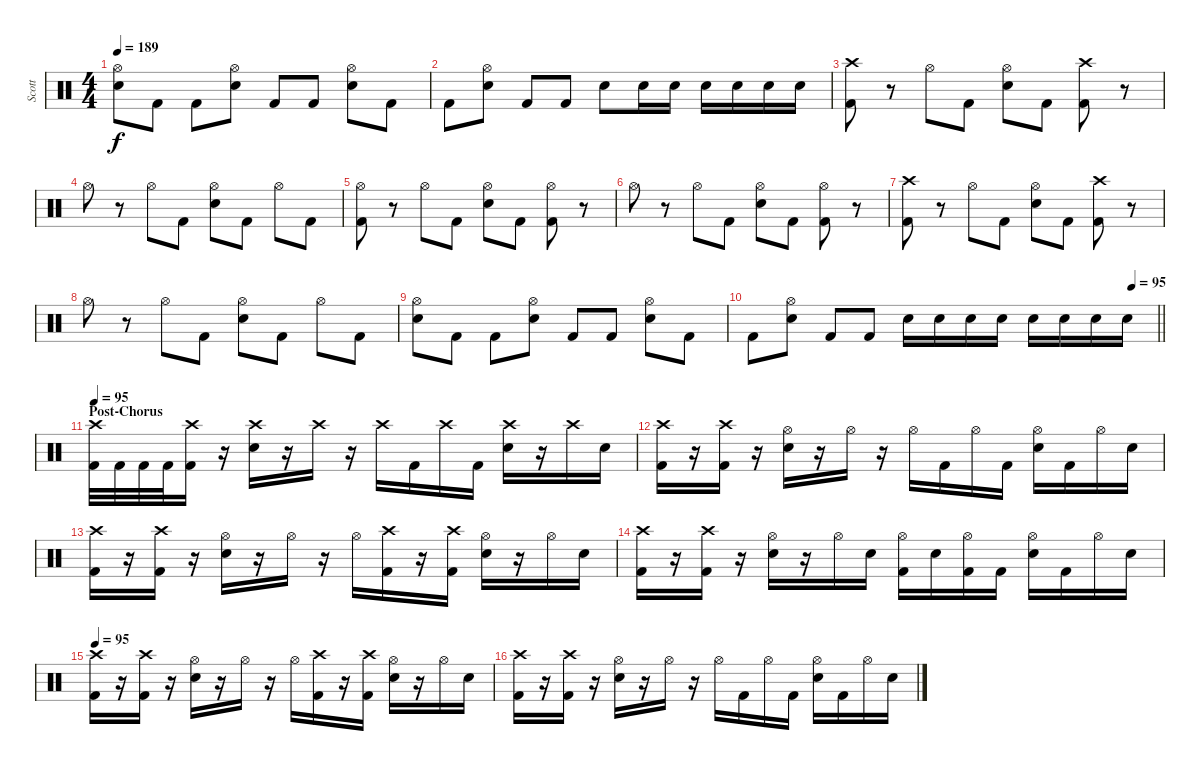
\track ("Scott" "Scott") {instrument percussion}
\staff {score}
\articulation defaults
\ts (4 4)
\tempo 189
\clef neutral
\ks c
("Hi-Hat (open)" "Electric Snare (hit)").8{dy f} "Kick (hit) 2".8 "Kick (hit) 2".8 ("Hi-Hat (open)" "Electric Snare (hit)").8 "Kick (hit) 2".8 "Kick (hit) 2".8 ("Hi-Hat (open)" "Electric Snare (hit)").8 "Kick (hit) 2".8 |
"Kick (hit) 2".8 ("Hi-Hat (open)" "Electric Snare (hit)").8 "Kick (hit) 2".8 "Kick (hit) 2".8 "Electric Snare (hit)".8 "Electric Snare (hit)".16 "Electric Snare (hit)".16 "Electric Snare (hit)".16 "Electric Snare (hit)".16 "Electric Snare (hit)".16 "Electric Snare (hit)".16 |
("Crash high (hit)" "Kick (hit) 2").8 r.8 "Hi-Hat (open)".8 "Kick (hit) 2".8 ("Hi-Hat (open)" "Electric Snare (hit)").8 "Kick (hit) 2".8 ("Crash high (hit)" "Kick (hit) 2").8 r.8 |
"Hi-Hat (open)".8 r.8 "Hi-Hat (open)".8 "Kick (hit) 2".8 ("Hi-Hat (open)" "Electric Snare (hit)").8 "Kick (hit) 2".8 "Hi-Hat (open)".8 "Kick (hit) 2".8 |
("Hi-Hat (open)" "Kick (hit) 2").8 r.8 "Hi-Hat (open)".8 "Kick (hit) 2".8 ("Hi-Hat (open)" "Electric Snare (hit)").8 "Kick (hit) 2".8 ("Hi-Hat (open)" "Kick (hit) 2").8 r.8 |
"Hi-Hat (open)".8 r.8 "Hi-Hat (open)".8 "Kick (hit) 2".8 ("Hi-Hat (open)" "Electric Snare (hit)").8 "Kick (hit) 2".8 ("Hi-Hat (open)" "Kick (hit) 2").8 r.8 |
("Crash high (hit)" "Kick (hit) 2").8 r.8 "Hi-Hat (open)".8 "Kick (hit) 2".8 ("Hi-Hat (open)" "Electric Snare (hit)").8 "Kick (hit) 2".8 ("Crash high (hit)" "Kick (hit) 2").8 r.8 |
"Hi-Hat (open)".8 r.8 "Hi-Hat (open)".8 "Kick (hit) 2".8 ("Hi-Hat (open)" "Electric Snare (hit)").8 "Kick (hit) 2".8 "Hi-Hat (open)".8 "Kick (hit) 2".8 |
("Hi-Hat (open)" "Electric Snare (hit)").8 "Kick (hit) 2".8 "Kick (hit) 2".8 ("Hi-Hat (open)" "Electric Snare (hit)").8 "Kick (hit) 2".8 "Kick (hit) 2".8 ("Hi-Hat (open)" "Electric Snare (hit)").8 "Kick (hit) 2".8 |
\tempo (95 0.9375)
\barLineRight lightlight "Kick (hit) 2".8
("Hi-Hat (open)" "Electric Snare (hit)").8 "Kick (hit) 2".8 "Kick (hit) 2".8 "Electric Snare (hit)".16 "Electric Snare (hit)".16 "Electric Snare (hit)".16 "Electric Snare (hit)".16 "Electric Snare (hit)".16 "Electric Snare (hit)".16 "Electric Snare (hit)".16 "Electric Snare (hit)".16 |
\section ("" "Post-Chorus")
\tempo 95
("Crash high (hit)" "Kick (hit) 2").32 "Kick (hit) 2".32 "Kick (hit) 2".32 "Kick (hit) 2".32 ("Crash high (hit)" "Kick (hit) 2").16 r.16 ("Crash high (hit)" "Electric Snare (hit)").16 r.16 "Crash high (hit)".16 r.16 "Crash high (hit)".16 "Kick (hit) 2".16 "Crash high (hit)".16 "Kick (hit) 2".16 ("Crash high (hit)" "Electric Snare (hit)").16 r.16 "Crash high (hit)".16 "Electric Snare (hit)".16 |
("Crash high (hit)" "Kick (hit) 2").16 r.16 ("Crash high (hit)" "Kick (hit) 2").16 r.16 ("Hi-Hat (open)" "Electric Snare (hit)").16 r.16 "Hi-Hat (open)".16 r.16 "Hi-Hat (open)".16 "Kick (hit) 2".16 "Hi-Hat (open)".16 "Kick (hit) 2".16 ("Hi-Hat (open)" "Electric Snare (hit)").16 "Kick (hit) 2".16 "Hi-Hat (open)".16 "Electric Snare (hit)".16 |
("Crash high (hit)" "Kick (hit) 2").16 r.16 ("Crash high (hit)" "Kick (hit) 2").16 r.16 ("Hi-Hat (open)" "Electric Snare (hit)").16 r.16 "Hi-Hat (open)".16 r.16 "Hi-Hat (open)".16 ("Crash high (hit)" "Kick (hit) 2").16 r.16 ("Crash high (hit)" "Kick (hit) 2").16 ("Hi-Hat (open)" "Electric Snare (hit)").16 r.16 "Hi-Hat (open)".16 "Electric Snare (hit)".16 |
("Crash high (hit)" "Kick (hit) 2").16 r.16 ("Crash high (hit)" "Kick (hit) 2").16 r.16 ("Hi-Hat (open)" "Electric Snare (hit)").16 r.16 "Hi-Hat (open)".16 "Electric Snare (hit)".16 ("Hi-Hat (open)" "Kick (hit) 2").16 "Electric Snare (hit)".16 ("Hi-Hat (open)" "Kick (hit) 2").16 "Kick (hit) 2".16 ("Hi-Hat (open)" "Electric Snare (hit)").16 "Kick (hit) 2".16 "Hi-Hat (open)".16 "Electric Snare (hit)".16 |
\tempo 95
("Crash high (hit)" "Kick (hit) 2").16 r.16 ("Crash high (hit)" "Kick (hit) 2").16 r.16 ("Hi-Hat (open)" "Electric Snare (hit)").16 r.16 "Hi-Hat (open)".16 r.16 "Hi-Hat (open)".16 ("Crash high (hit)" "Kick (hit) 2").16 r.16 ("Crash high (hit)" "Kick (hit) 2").16 ("Hi-Hat (open)" "Electric Snare (hit)").16 r.16 "Hi-Hat (open)".16 "Electric Snare (hit)".16 |
("Crash high (hit)" "Kick (hit) 2").16 r.16 ("Crash high (hit)" "Kick (hit) 2").16 r.16 ("Hi-Hat (open)" "Electric Snare (hit)").16 r.16 "Hi-Hat (open)".16 r.16 "Hi-Hat (open)".16 "Kick (hit) 2".16 "Hi-Hat (open)".16 "Kick (hit) 2".16 ("Hi-Hat (open)" "Electric Snare (hit)").16 "Kick (hit) 2".16 "Hi-Hat (open)".16 "Electric Snare (hit)".16
